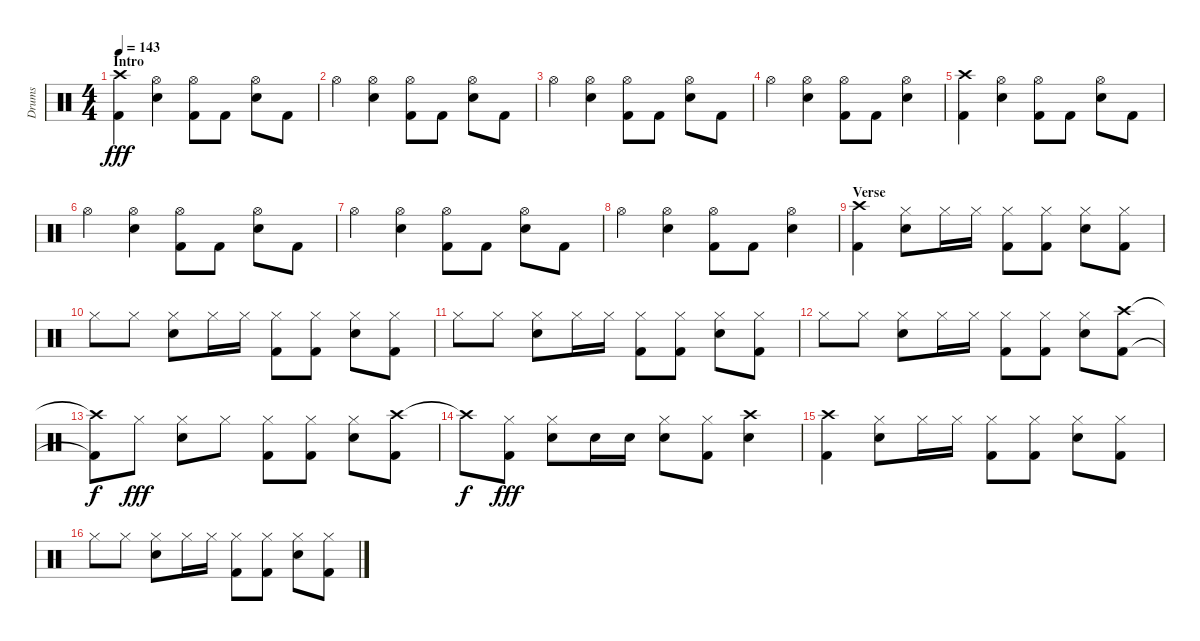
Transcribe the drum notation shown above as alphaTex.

\track ("Drums" "Drums") {instrument percussion}
\staff {score}
\articulation defaults
\ts (4 4)
\section ("" "Intro")
\tempo 143
\clef neutral
\ks c
("Crash high (hit)" "Kick (hit) 2").4{dy fff} ("Hi-Hat (open)" "Snare (hit) 2").4 ("Hi-Hat (open)" "Kick (hit) 2").8 "Kick (hit) 2".8 ("Hi-Hat (open)" "Snare (hit) 2").8 "Kick (hit) 2".8 |
"Hi-Hat (open)".4 ("Hi-Hat (open)" "Snare (hit) 2").4 ("Hi-Hat (open)" "Kick (hit) 2").8 "Kick (hit) 2".8 ("Hi-Hat (open)" "Snare (hit) 2").8 "Kick (hit) 2".8 |
"Hi-Hat (open)".4 ("Hi-Hat (open)" "Snare (hit) 2").4 ("Hi-Hat (open)" "Kick (hit) 2").8 "Kick (hit) 2".8 ("Hi-Hat (open)" "Snare (hit) 2").8 "Kick (hit) 2".8 |
"Hi-Hat (open)".4 ("Hi-Hat (open)" "Snare (hit) 2").4 ("Hi-Hat (open)" "Kick (hit) 2").8 "Kick (hit) 2".8 ("Hi-Hat (open)" "Snare (hit) 2").4 |
("Crash high (hit)" "Kick (hit) 2").4 ("Hi-Hat (open)" "Snare (hit) 2").4 ("Hi-Hat (open)" "Kick (hit) 2").8 "Kick (hit) 2".8 ("Hi-Hat (open)" "Snare (hit) 2").8 "Kick (hit) 2".8 |
"Hi-Hat (open)".4 ("Hi-Hat (open)" "Snare (hit) 2").4 ("Hi-Hat (open)" "Kick (hit) 2").8 "Kick (hit) 2".8 ("Hi-Hat (open)" "Snare (hit) 2").8 "Kick (hit) 2".8 |
"Hi-Hat (open)".4 ("Hi-Hat (open)" "Snare (hit) 2").4 ("Hi-Hat (open)" "Kick (hit) 2").8 "Kick (hit) 2".8 ("Hi-Hat (open)" "Snare (hit) 2").8 "Kick (hit) 2".8 |
"Hi-Hat (open)".4 ("Hi-Hat (open)" "Snare (hit) 2").4 ("Hi-Hat (open)" "Kick (hit) 2").8 "Kick (hit) 2".8 ("Hi-Hat (open)" "Snare (hit) 2").4 |
\section ("" "Verse")
("Crash high (hit)" "Kick (hit) 2").4 ("Hi-Hat (closed)" "Snare (hit) 2").8 "Hi-Hat (closed)".16 "Hi-Hat (closed)".16 ("Hi-Hat (closed)" "Kick (hit) 2").8 ("Hi-Hat (closed)" "Kick (hit) 2").8 ("Hi-Hat (closed)" "Snare (hit) 2").8 ("Hi-Hat (closed)" "Kick (hit) 2").8 |
"Hi-Hat (closed)".8 "Hi-Hat (closed)".8 ("Hi-Hat (closed)" "Snare (hit) 2").8 "Hi-Hat (closed)".16 "Hi-Hat (closed)".16 ("Hi-Hat (closed)" "Kick (hit) 2").8 ("Hi-Hat (closed)" "Kick (hit) 2").8 ("Hi-Hat (closed)" "Snare (hit) 2").8 ("Hi-Hat (closed)" "Kick (hit) 2").8 |
"Hi-Hat (closed)".8 "Hi-Hat (closed)".8 ("Hi-Hat (closed)" "Snare (hit) 2").8 "Hi-Hat (closed)".16 "Hi-Hat (closed)".16 ("Hi-Hat (closed)" "Kick (hit) 2").8 ("Hi-Hat (closed)" "Kick (hit) 2").8 ("Hi-Hat (closed)" "Snare (hit) 2").8 ("Hi-Hat (closed)" "Kick (hit) 2").8 |
"Hi-Hat (closed)".8 "Hi-Hat (closed)".8 ("Hi-Hat (closed)" "Snare (hit) 2").8 "Hi-Hat (closed)".16 "Hi-Hat (closed)".16 ("Hi-Hat (closed)" "Kick (hit) 2").8 ("Hi-Hat (closed)" "Kick (hit) 2").8 ("Hi-Hat (closed)" "Snare (hit) 2").8 ("Crash high (hit)" "Kick (hit) 2").8 |
("Crash high (hit)"{t} "Kick (hit) 2"{t}).8{dy f} "Hi-Hat (closed)".8{dy fff} ("Hi-Hat (closed)" "Snare (hit) 2").8 "Hi-Hat (closed)".8 ("Hi-Hat (closed)" "Kick (hit) 2").8 ("Hi-Hat (closed)" "Kick (hit) 2").8 ("Hi-Hat (closed)" "Snare (hit) 2").8 ("Crash high (hit)" "Kick (hit) 2").8 |
"Crash high (hit)"{t}.8{dy f} ("Hi-Hat (closed)" "Kick (hit) 2").8{dy fff} ("Hi-Hat (closed)" "Snare (hit) 2").8 "Snare (hit) 2".16 "Snare (hit) 2".16 ("Hi-Hat (closed)" "Snare (hit) 2").8 ("Hi-Hat (closed)" "Kick (hit) 2").8 ("Crash high (hit)" "Snare (hit) 2").4 |
("Crash high (hit)" "Kick (hit) 2").4 ("Hi-Hat (closed)" "Snare (hit) 2").8 "Hi-Hat (closed)".16 "Hi-Hat (closed)".16 ("Hi-Hat (closed)" "Kick (hit) 2").8 ("Hi-Hat (closed)" "Kick (hit) 2").8 ("Hi-Hat (closed)" "Snare (hit) 2").8 ("Hi-Hat (closed)" "Kick (hit) 2").8 |
"Hi-Hat (closed)".8 "Hi-Hat (closed)".8 ("Hi-Hat (closed)" "Snare (hit) 2").8 "Hi-Hat (closed)".16 "Hi-Hat (closed)".16 ("Hi-Hat (closed)" "Kick (hit) 2").8 ("Hi-Hat (closed)" "Kick (hit) 2").8 ("Hi-Hat (closed)" "Snare (hit) 2").8 ("Hi-Hat (closed)" "Kick (hit) 2").8
